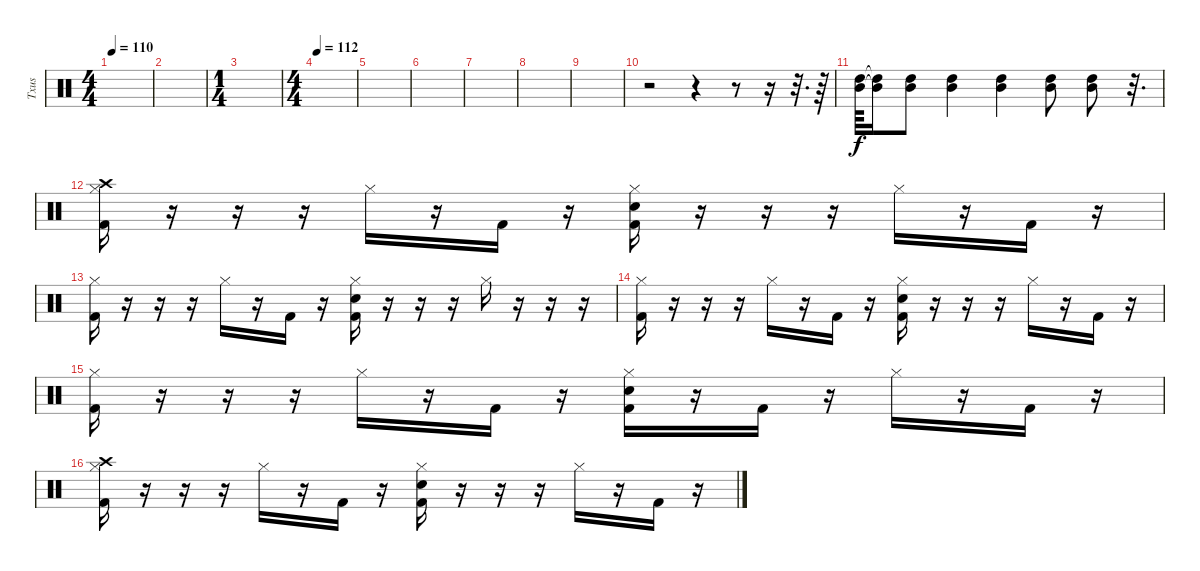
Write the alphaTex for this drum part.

\track ("Txus" "Txus") {instrument percussion}
\staff {score}
\articulation defaults
\ts (4 4)
\tempo 110
\clef neutral
\ks c
|
|
\ts (1 4)
|
\ts (4 4)
\tempo 112
|
|
|
|
|
|
r.2 r.4 r.8 r.16 r.32{d} r.64 |
("High Tom (hit)" "Mid Tom (hit)").64 ("High Tom (hit)"{t} "Mid Tom (hit)"{t}).16 ("High Tom (hit)" "Mid Tom (hit)").8 ("High Tom (hit)" "Mid Tom (hit)").4 ("High Tom (hit)" "Mid Tom (hit)").4 ("High Tom (hit)" "Mid Tom (hit)").8 ("High Tom (hit)" "Mid Tom (hit)").8 r.32{d} |
("Hi-Hat (closed)" "Crash high (hit)" "Kick (hit) 2").16 r.16 r.16 r.16 "Hi-Hat (closed)".16 r.16 "Kick (hit) 2".16 r.16 ("Hi-Hat (closed)" "Electric Snare (hit)" "Kick (hit) 2").16 r.16 r.16 r.16 "Hi-Hat (closed)".16 r.16 "Kick (hit) 2".16 r.16 |
("Hi-Hat (closed)" "Kick (hit) 2").16 r.16 r.16 r.16 "Hi-Hat (closed)".16 r.16 "Kick (hit) 2".16 r.16 ("Hi-Hat (closed)" "Electric Snare (hit)" "Kick (hit) 2").16 r.16 r.16 r.16 "Hi-Hat (closed)".16 r.16 r.16 r.16 |
("Hi-Hat (closed)" "Kick (hit) 2").16 r.16 r.16 r.16 "Hi-Hat (closed)".16 r.16 "Kick (hit) 2".16 r.16 ("Hi-Hat (closed)" "Electric Snare (hit)" "Kick (hit) 2").16 r.16 r.16 r.16 "Hi-Hat (closed)".16 r.16 "Kick (hit) 2".16 r.16 |
("Hi-Hat (closed)" "Kick (hit) 2").16 r.16 r.16 r.16 "Hi-Hat (closed)".16 r.16 "Kick (hit) 2".16 r.16 ("Hi-Hat (closed)" "Electric Snare (hit)" "Kick (hit) 2").16 r.16 "Kick (hit) 2".16 r.16 "Hi-Hat (closed)".16 r.16 "Kick (hit) 2".16 r.16 |
("Hi-Hat (closed)" "Crash high (hit)" "Kick (hit) 2").16 r.16 r.16 r.16 "Hi-Hat (closed)".16 r.16 "Kick (hit) 2".16 r.16 ("Hi-Hat (closed)" "Electric Snare (hit)" "Kick (hit) 2").16 r.16 r.16 r.16 "Hi-Hat (closed)".16 r.16 "Kick (hit) 2".16 r.16
